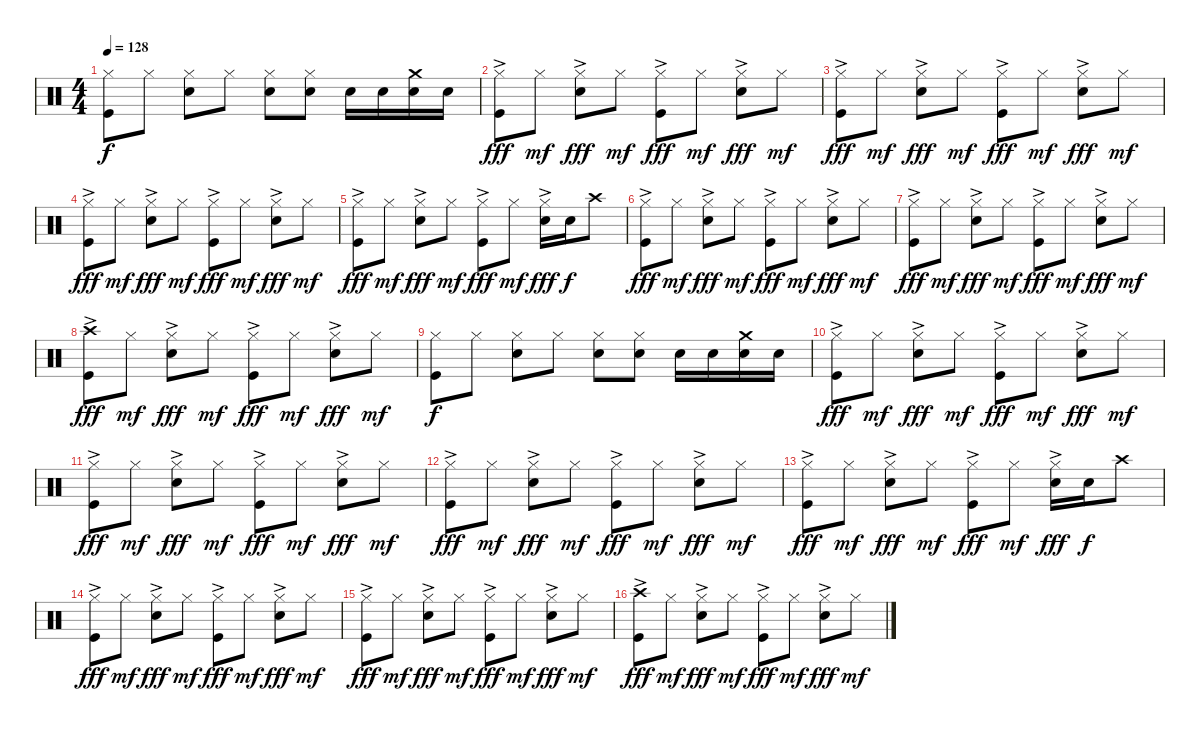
\track "" {instrument percussion}
\staff {score}
\articulation defaults
\ts (4 4)
\tempo 128
\clef neutral
\ks c
("Hi-Hat (closed)" "Kick (hit)").8{dy f} "Hi-Hat (closed)".8{txt ""} ("Hi-Hat (closed)" "Electric Snare (hit)").8 "Hi-Hat (closed)".8 ("Hi-Hat (closed)" "Electric Snare (hit)").8 ("Hi-Hat (closed)" "Electric Snare (hit)").8 "Electric Snare (hit)".16 "Electric Snare (hit)".16 ("Crash medium (hit)" "Electric Snare (hit)").16 "Electric Snare (hit)".16 |
("Hi-Hat (closed)"{ac} "Kick (hit)").8{dy fff} "Hi-Hat (closed)".8{dy mf} ("Hi-Hat (closed)"{ac} "Electric Snare (hit)").8{dy fff} "Hi-Hat (closed)".8{dy mf} ("Hi-Hat (closed)"{ac} "Kick (hit)").8{dy fff} "Hi-Hat (closed)".8{dy mf} ("Hi-Hat (closed)"{ac} "Electric Snare (hit)").8{dy fff} "Hi-Hat (closed)".8{dy mf} |
("Hi-Hat (closed)"{ac} "Kick (hit)").8{dy fff} "Hi-Hat (closed)".8{dy mf} ("Hi-Hat (closed)"{ac} "Electric Snare (hit)").8{dy fff} "Hi-Hat (closed)".8{dy mf} ("Hi-Hat (closed)"{ac} "Kick (hit)").8{dy fff} "Hi-Hat (closed)".8{dy mf} ("Hi-Hat (closed)"{ac} "Electric Snare (hit)").8{dy fff} "Hi-Hat (closed)".8{dy mf} |
("Hi-Hat (closed)"{ac} "Kick (hit)").8{dy fff} "Hi-Hat (closed)".8{dy mf} ("Hi-Hat (closed)"{ac} "Electric Snare (hit)").8{dy fff} "Hi-Hat (closed)".8{dy mf} ("Hi-Hat (closed)"{ac} "Kick (hit)").8{dy fff} "Hi-Hat (closed)".8{dy mf} ("Hi-Hat (closed)"{ac} "Electric Snare (hit)").8{dy fff} "Hi-Hat (closed)".8{dy mf} |
("Hi-Hat (closed)"{ac} "Kick (hit)").8{dy fff} "Hi-Hat (closed)".8{dy mf} ("Hi-Hat (closed)"{ac} "Electric Snare (hit)").8{dy fff} "Hi-Hat (closed)".8{dy mf} ("Hi-Hat (closed)"{ac} "Kick (hit)").8{dy fff} "Hi-Hat (closed)".8{dy mf} ("Hi-Hat (closed)"{ac} "Electric Snare (hit)").16{dy fff} "Electric Snare (hit)".16{dy f} "Crash high (hit)".8 |
("Hi-Hat (closed)"{ac} "Kick (hit)").8{dy fff} "Hi-Hat (closed)".8{dy mf} ("Hi-Hat (closed)"{ac} "Electric Snare (hit)").8{dy fff} "Hi-Hat (closed)".8{dy mf} ("Hi-Hat (closed)"{ac} "Kick (hit)").8{dy fff} "Hi-Hat (closed)".8{dy mf} ("Hi-Hat (closed)"{ac} "Electric Snare (hit)").8{dy fff} "Hi-Hat (closed)".8{dy mf} |
("Hi-Hat (closed)"{ac} "Kick (hit)").8{dy fff} "Hi-Hat (closed)".8{dy mf} ("Hi-Hat (closed)"{ac} "Electric Snare (hit)").8{dy fff} "Hi-Hat (closed)".8{dy mf} ("Hi-Hat (closed)"{ac} "Kick (hit)").8{dy fff} "Hi-Hat (closed)".8{dy mf} ("Hi-Hat (closed)"{ac} "Electric Snare (hit)").8{dy fff} "Hi-Hat (closed)".8{dy mf} |
("Crash high (hit)"{ac} "Kick (hit)").8{dy fff} "Hi-Hat (closed)".8{dy mf} ("Hi-Hat (closed)"{ac} "Electric Snare (hit)").8{dy fff} "Hi-Hat (closed)".8{dy mf} ("Hi-Hat (closed)"{ac} "Kick (hit)").8{dy fff} "Hi-Hat (closed)".8{dy mf} ("Hi-Hat (closed)"{ac} "Electric Snare (hit)").8{dy fff} "Hi-Hat (closed)".8{dy mf} |
("Hi-Hat (closed)" "Kick (hit)").8{dy f} "Hi-Hat (closed)".8 ("Hi-Hat (closed)" "Electric Snare (hit)").8 "Hi-Hat (closed)".8 ("Hi-Hat (closed)" "Electric Snare (hit)").8 ("Hi-Hat (closed)" "Electric Snare (hit)").8 "Electric Snare (hit)".16 "Electric Snare (hit)".16 ("Crash medium (hit)" "Electric Snare (hit)").16 "Electric Snare (hit)".16 |
("Hi-Hat (closed)"{ac} "Kick (hit)").8{dy fff} "Hi-Hat (closed)".8{dy mf} ("Hi-Hat (closed)"{ac} "Electric Snare (hit)").8{dy fff} "Hi-Hat (closed)".8{dy mf} ("Hi-Hat (closed)"{ac} "Kick (hit)").8{dy fff} "Hi-Hat (closed)".8{dy mf} ("Hi-Hat (closed)"{ac} "Electric Snare (hit)").8{dy fff} "Hi-Hat (closed)".8{dy mf} |
("Hi-Hat (closed)"{ac} "Kick (hit)").8{dy fff} "Hi-Hat (closed)".8{dy mf} ("Hi-Hat (closed)"{ac} "Electric Snare (hit)").8{dy fff} "Hi-Hat (closed)".8{dy mf} ("Hi-Hat (closed)"{ac} "Kick (hit)").8{dy fff} "Hi-Hat (closed)".8{dy mf} ("Hi-Hat (closed)"{ac} "Electric Snare (hit)").8{dy fff} "Hi-Hat (closed)".8{dy mf} |
("Hi-Hat (closed)"{ac} "Kick (hit)").8{dy fff} "Hi-Hat (closed)".8{dy mf} ("Hi-Hat (closed)"{ac} "Electric Snare (hit)").8{dy fff} "Hi-Hat (closed)".8{dy mf} ("Hi-Hat (closed)"{ac} "Kick (hit)").8{dy fff} "Hi-Hat (closed)".8{dy mf} ("Hi-Hat (closed)"{ac} "Electric Snare (hit)").8{dy fff} "Hi-Hat (closed)".8{dy mf} |
("Hi-Hat (closed)"{ac} "Kick (hit)").8{dy fff} "Hi-Hat (closed)".8{dy mf} ("Hi-Hat (closed)"{ac} "Electric Snare (hit)").8{dy fff} "Hi-Hat (closed)".8{dy mf} ("Hi-Hat (closed)"{ac} "Kick (hit)").8{dy fff} "Hi-Hat (closed)".8{dy mf} ("Hi-Hat (closed)"{ac} "Electric Snare (hit)").16{dy fff} "Electric Snare (hit)".16{dy f} "Crash high (hit)".8 |
("Hi-Hat (closed)"{ac} "Kick (hit)").8{dy fff} "Hi-Hat (closed)".8{dy mf} ("Hi-Hat (closed)"{ac} "Electric Snare (hit)").8{dy fff} "Hi-Hat (closed)".8{dy mf} ("Hi-Hat (closed)"{ac} "Kick (hit)").8{dy fff} "Hi-Hat (closed)".8{dy mf} ("Hi-Hat (closed)"{ac} "Electric Snare (hit)").8{dy fff} "Hi-Hat (closed)".8{dy mf} |
("Hi-Hat (closed)"{ac} "Kick (hit)").8{dy fff} "Hi-Hat (closed)".8{dy mf} ("Hi-Hat (closed)"{ac} "Electric Snare (hit)").8{dy fff} "Hi-Hat (closed)".8{dy mf} ("Hi-Hat (closed)"{ac} "Kick (hit)").8{dy fff} "Hi-Hat (closed)".8{dy mf} ("Hi-Hat (closed)"{ac} "Electric Snare (hit)").8{dy fff} "Hi-Hat (closed)".8{dy mf} |
("Crash high (hit)"{ac} "Kick (hit)").8{dy fff} "Hi-Hat (closed)".8{dy mf} ("Hi-Hat (closed)"{ac} "Electric Snare (hit)").8{dy fff} "Hi-Hat (closed)".8{dy mf} ("Hi-Hat (closed)"{ac} "Kick (hit)").8{dy fff} "Hi-Hat (closed)".8{dy mf} ("Hi-Hat (closed)"{ac} "Electric Snare (hit)").8{dy fff} "Hi-Hat (closed)".8{dy mf}
